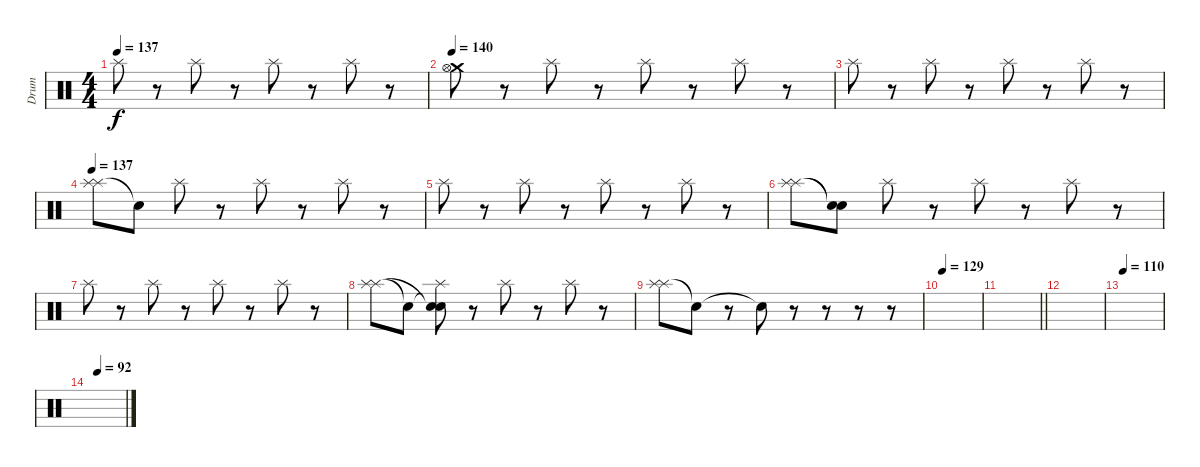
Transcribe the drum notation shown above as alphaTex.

\track ("Drum" "Drum") {instrument percussion}
\staff {score}
\articulation defaults
\ts (4 4)
\tempo 137
\clef neutral
\ks c "Splash (hit)".8{dy f}
r.8 "Splash (hit)".8 r.8 "Splash (hit)".8 r.8 "Splash (hit)".8 r.8 |
\tempo 140
("Crash medium (hit)" "Hi-Hat (open)").8 r.8 "Splash (hit)".8 r.8 "Splash (hit)".8 r.8 "Splash (hit)".8 r.8 |
"Splash (hit)".8 r.8 "Splash (hit)".8 r.8 "Splash (hit)".8 r.8 "Splash (hit)".8 r.8 |
\tempo 137
("Splash (hit)" "Splash (hit)").8 "Snare (hit)"{t}.8 "Splash (hit)".8 r.8 "Splash (hit)".8 r.8 "Splash (hit)".8 r.8 |
"Splash (hit)".8 r.8 "Splash (hit)".8 r.8 "Splash (hit)".8 r.8 "Splash (hit)".8 r.8 |
("Splash (hit)" "Splash (hit)").8 ("Snare (hit)"{t} "Snare (hit)"{t}).8 "Splash (hit)".8 r.8 "Splash (hit)".8 r.8 "Splash (hit)".8 r.8 |
"Splash (hit)".8 r.8 "Splash (hit)".8 r.8 "Splash (hit)".8 r.8 "Splash (hit)".8 r.8 |
("Splash (hit)" "Splash (hit)").8 "Snare (hit)"{t}.8 ("Snare (hit)"{t} "Snare (hit)"{t} "Splash (hit)").8 r.8 "Splash (hit)".8 r.8 "Splash (hit)".8 r.8 |
("Splash (hit)" "Splash (hit)").8 "Snare (hit)"{t}.8 r.8 "Snare (hit)"{t}.8 r.8 r.8 r.8 r.8 |
\tempo 129
|
\barLineRight lightlight
|
|
\tempo 110
|
\tempo (92 0.25)
